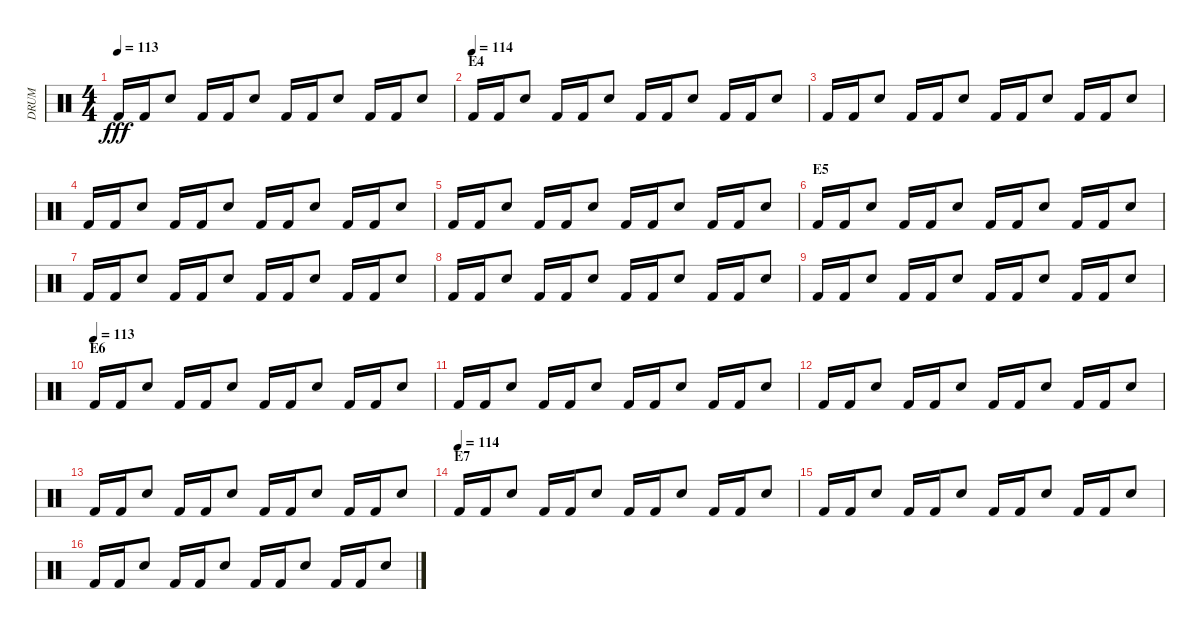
\track ("DRUM" "DRUM") {instrument percussion}
\staff {score}
\articulation defaults
\ts (4 4)
\tempo 113
\clef neutral
\ks c "Kick (hit) 2".16{dy fff} "Kick (hit) 2".16 "Electric Snare (hit)".8 "Kick (hit) 2".16 "Kick (hit) 2".16 "Electric Snare (hit)".8 "Kick (hit) 2".16 "Kick (hit) 2".16 "Electric Snare (hit)".8 "Kick (hit) 2".16 "Kick (hit) 2".16 "Electric Snare (hit)".8
|
\section ("" "E4")
\tempo (114)
"Kick (hit) 2".16 "Kick (hit) 2".16 "Electric Snare (hit)".8 "Kick (hit) 2".16 "Kick (hit) 2".16 "Electric Snare (hit)".8 "Kick (hit) 2".16 "Kick (hit) 2".16 "Electric Snare (hit)".8 "Kick (hit) 2".16 "Kick (hit) 2".16 "Electric Snare (hit)".8 |
"Kick (hit) 2".16 "Kick (hit) 2".16 "Electric Snare (hit)".8 "Kick (hit) 2".16 "Kick (hit) 2".16 "Electric Snare (hit)".8 "Kick (hit) 2".16 "Kick (hit) 2".16 "Electric Snare (hit)".8 "Kick (hit) 2".16 "Kick (hit) 2".16 "Electric Snare (hit)".8 |
"Kick (hit) 2".16 "Kick (hit) 2".16 "Electric Snare (hit)".8 "Kick (hit) 2".16 "Kick (hit) 2".16 "Electric Snare (hit)".8 "Kick (hit) 2".16 "Kick (hit) 2".16 "Electric Snare (hit)".8 "Kick (hit) 2".16 "Kick (hit) 2".16 "Electric Snare (hit)".8 |
"Kick (hit) 2".16 "Kick (hit) 2".16 "Electric Snare (hit)".8 "Kick (hit) 2".16 "Kick (hit) 2".16 "Electric Snare (hit)".8 "Kick (hit) 2".16 "Kick (hit) 2".16 "Electric Snare (hit)".8 "Kick (hit) 2".16 "Kick (hit) 2".16 "Electric Snare (hit)".8 |
\section ("" "E5")
"Kick (hit) 2".16 "Kick (hit) 2".16 "Electric Snare (hit)".8 "Kick (hit) 2".16 "Kick (hit) 2".16 "Electric Snare (hit)".8 "Kick (hit) 2".16 "Kick (hit) 2".16 "Electric Snare (hit)".8 "Kick (hit) 2".16 "Kick (hit) 2".16 "Electric Snare (hit)".8 |
"Kick (hit) 2".16 "Kick (hit) 2".16 "Electric Snare (hit)".8 "Kick (hit) 2".16 "Kick (hit) 2".16 "Electric Snare (hit)".8 "Kick (hit) 2".16 "Kick (hit) 2".16 "Electric Snare (hit)".8 "Kick (hit) 2".16 "Kick (hit) 2".16 "Electric Snare (hit)".8 |
"Kick (hit) 2".16 "Kick (hit) 2".16 "Electric Snare (hit)".8 "Kick (hit) 2".16 "Kick (hit) 2".16 "Electric Snare (hit)".8 "Kick (hit) 2".16 "Kick (hit) 2".16 "Electric Snare (hit)".8 "Kick (hit) 2".16 "Kick (hit) 2".16 "Electric Snare (hit)".8 |
"Kick (hit) 2".16 "Kick (hit) 2".16 "Electric Snare (hit)".8 "Kick (hit) 2".16 "Kick (hit) 2".16 "Electric Snare (hit)".8 "Kick (hit) 2".16 "Kick (hit) 2".16 "Electric Snare (hit)".8 "Kick (hit) 2".16 "Kick (hit) 2".16 "Electric Snare (hit)".8 |
\section ("" "E6")
\tempo (113)
"Kick (hit) 2".16 "Kick (hit) 2".16 "Electric Snare (hit)".8 "Kick (hit) 2".16 "Kick (hit) 2".16 "Electric Snare (hit)".8 "Kick (hit) 2".16 "Kick (hit) 2".16 "Electric Snare (hit)".8 "Kick (hit) 2".16 "Kick (hit) 2".16 "Electric Snare (hit)".8 |
"Kick (hit) 2".16 "Kick (hit) 2".16 "Electric Snare (hit)".8 "Kick (hit) 2".16 "Kick (hit) 2".16 "Electric Snare (hit)".8 "Kick (hit) 2".16 "Kick (hit) 2".16 "Electric Snare (hit)".8 "Kick (hit) 2".16 "Kick (hit) 2".16 "Electric Snare (hit)".8 |
"Kick (hit) 2".16 "Kick (hit) 2".16 "Electric Snare (hit)".8 "Kick (hit) 2".16 "Kick (hit) 2".16 "Electric Snare (hit)".8 "Kick (hit) 2".16 "Kick (hit) 2".16 "Electric Snare (hit)".8 "Kick (hit) 2".16 "Kick (hit) 2".16 "Electric Snare (hit)".8 |
"Kick (hit) 2".16 "Kick (hit) 2".16 "Electric Snare (hit)".8 "Kick (hit) 2".16 "Kick (hit) 2".16 "Electric Snare (hit)".8 "Kick (hit) 2".16 "Kick (hit) 2".16 "Electric Snare (hit)".8 "Kick (hit) 2".16 "Kick (hit) 2".16 "Electric Snare (hit)".8 |
\section ("" "E7")
\tempo (114)
"Kick (hit) 2".16 "Kick (hit) 2".16 "Electric Snare (hit)".8 "Kick (hit) 2".16 "Kick (hit) 2".16 "Electric Snare (hit)".8 "Kick (hit) 2".16 "Kick (hit) 2".16 "Electric Snare (hit)".8 "Kick (hit) 2".16 "Kick (hit) 2".16 "Electric Snare (hit)".8 |
"Kick (hit) 2".16 "Kick (hit) 2".16 "Electric Snare (hit)".8 "Kick (hit) 2".16 "Kick (hit) 2".16 "Electric Snare (hit)".8 "Kick (hit) 2".16 "Kick (hit) 2".16 "Electric Snare (hit)".8 "Kick (hit) 2".16 "Kick (hit) 2".16 "Electric Snare (hit)".8 |
"Kick (hit) 2".16 "Kick (hit) 2".16 "Electric Snare (hit)".8 "Kick (hit) 2".16 "Kick (hit) 2".16 "Electric Snare (hit)".8 "Kick (hit) 2".16 "Kick (hit) 2".16 "Electric Snare (hit)".8 "Kick (hit) 2".16 "Kick (hit) 2".16 "Electric Snare (hit)".8
